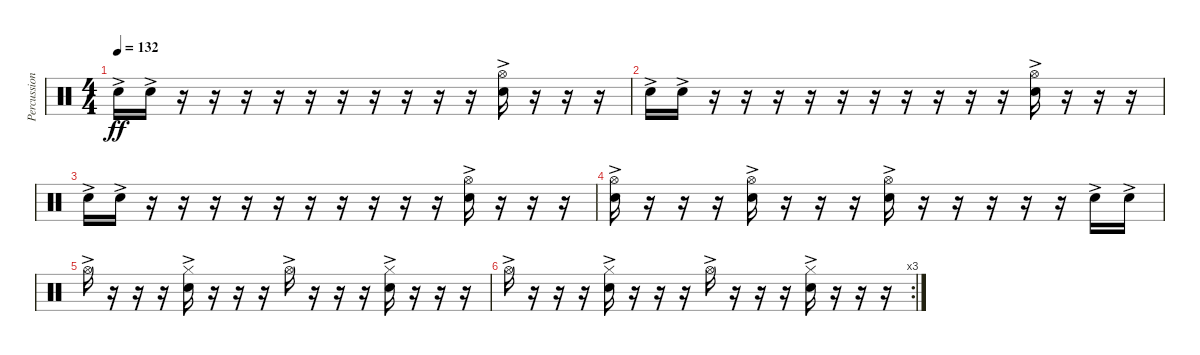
\track ("Percussion" "Percussion") {instrument percussion bank 2}
\staff {score}
\articulation defaults
\ts (4 4)
\tempo 132
\clef neutral
\ks c "Snare (hit) 2"{ac}.16{dy ff} "Snare (hit) 2"{ac}.16
r.16 r.16 r.16 r.16 r.16 r.16 r.16 r.16 r.16 r.16 ("Hi-Hat (open)"{ac} "Snare (hit) 2"{ac}).16 r.16 r.16 r.16 |
"Snare (hit) 2"{ac}.16 "Snare (hit) 2"{ac}.16 r.16 r.16 r.16 r.16 r.16 r.16 r.16 r.16 r.16 r.16 ("Hi-Hat (open)"{ac} "Snare (hit) 2"{ac}).16 r.16 r.16 r.16 |
"Snare (hit) 2"{ac}.16 "Snare (hit) 2"{ac}.16 r.16 r.16 r.16 r.16 r.16 r.16 r.16 r.16 r.16 r.16 ("Hi-Hat (open)"{ac} "Snare (hit) 2"{ac}).16 r.16 r.16 r.16 |
("Hi-Hat (open)"{ac} "Snare (hit) 2"{ac}).16 r.16 r.16 r.16 ("Hi-Hat (open)"{ac} "Snare (hit) 2"{ac}).16 r.16 r.16 r.16 ("Hi-Hat (open)"{ac} "Snare (hit) 2"{ac}).16 r.16 r.16 r.16 r.16 r.16 "Snare (hit) 2"{ac}.16 "Snare (hit) 2"{ac}.16 |
"Hi-Hat (open)"{ac}.16 r.16 r.16 r.16 ("Hi-Hat (closed)"{ac} "Snare (hit) 2"{ac}).16 r.16 r.16 r.16 "Hi-Hat (open)"{ac}.16 r.16 r.16 r.16 ("Hi-Hat (closed)"{ac} "Snare (hit) 2"{ac}).16 r.16 r.16 r.16 |
\rc 3 "Hi-Hat (open)"{ac}.16
r.16 r.16 r.16 ("Hi-Hat (closed)"{ac} "Snare (hit) 2"{ac}).16 r.16 r.16 r.16 "Hi-Hat (open)"{ac}.16 r.16 r.16 r.16 ("Hi-Hat (closed)"{ac} "Snare (hit) 2"{ac}).16 r.16 r.16 r.16
